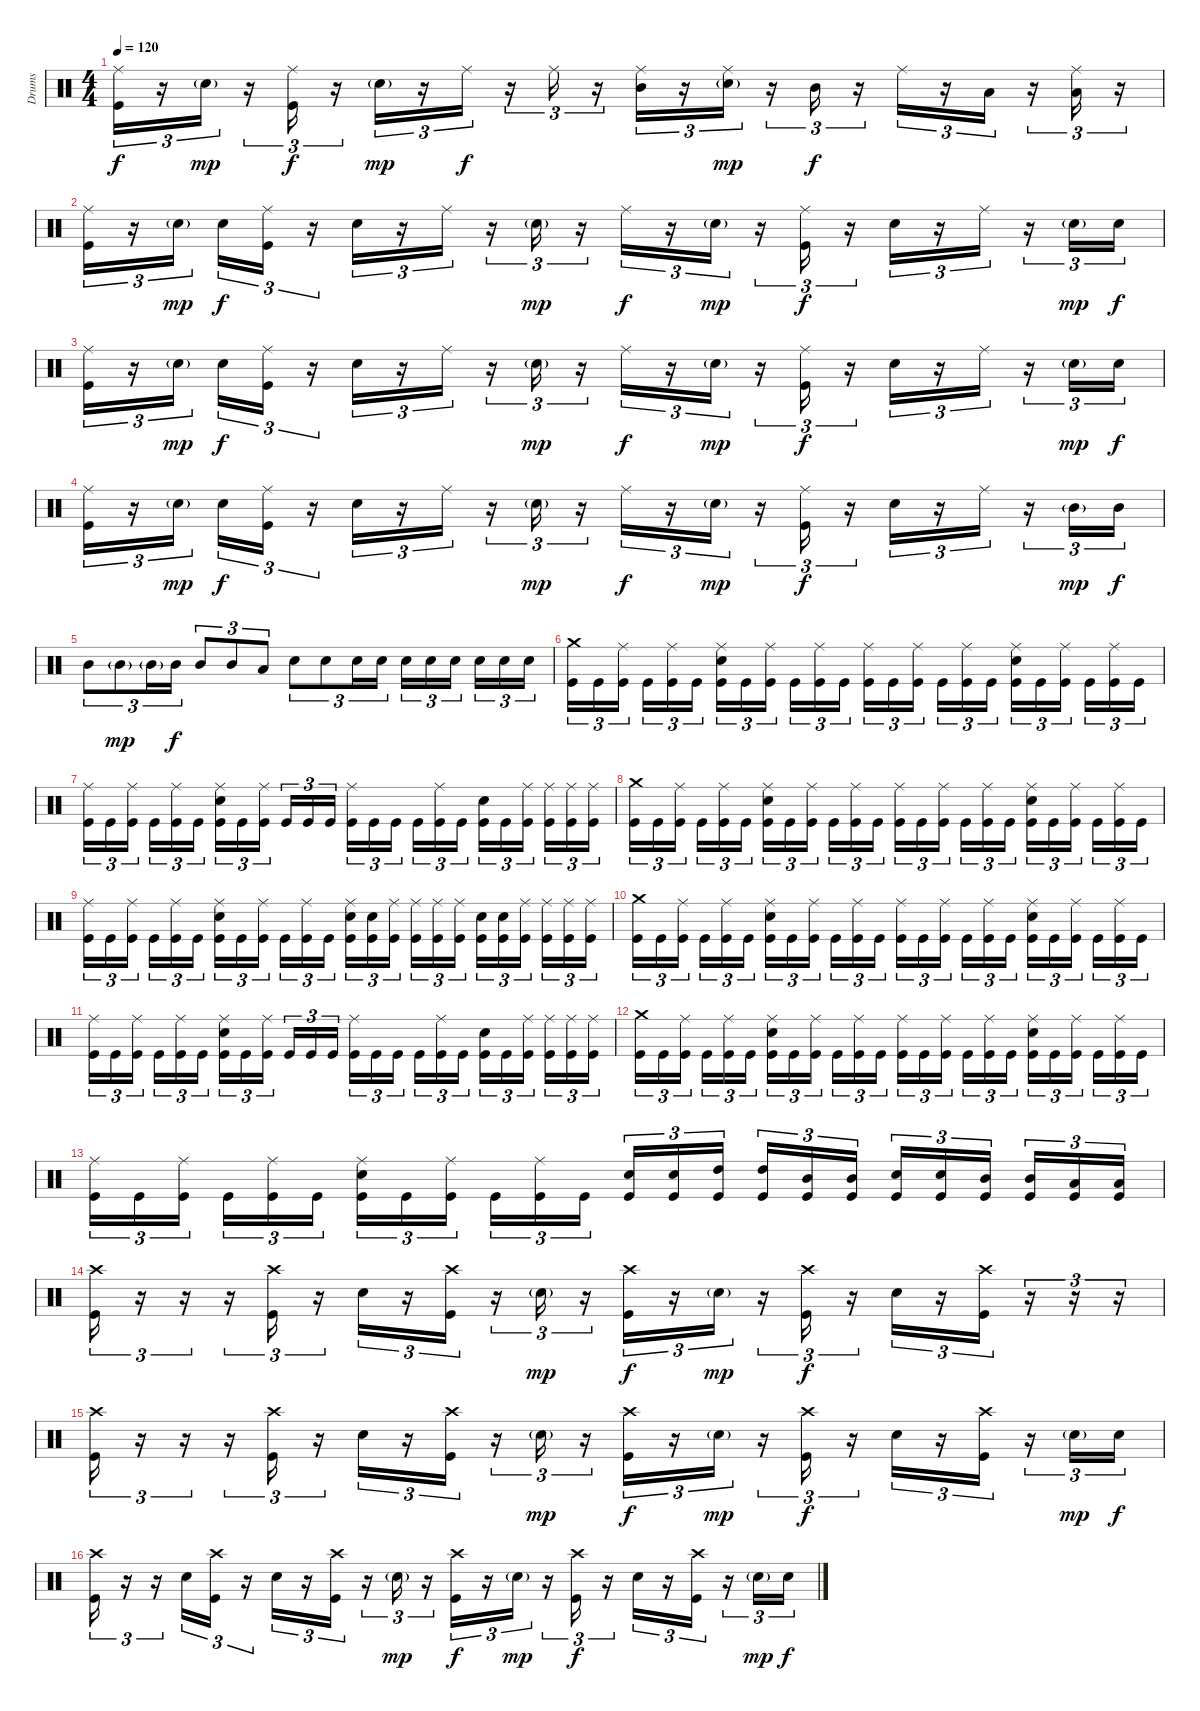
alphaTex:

\track ("Drums" "Drums") {instrument percussion}
\staff {score}
\articulation defaults
\ts (4 4)
\tempo 120
\clef neutral
\ks c
("Ride (middle)" "Kick (hit)").16{tu (3 2) dy f} r.16{tu (3 2)} "Snare (hit) 2"{g}.16{tu (3 2) dy mp} r.16{tu (3 2)} ("Ride (middle)" "Kick (hit)").16{tu (3 2) dy f} r.16{tu (3 2)} "Snare (hit) 2"{g}.16{tu (3 2) dy mp} r.16{tu (3 2)} "Ride (middle)".16{tu (3 2) dy f} r.16{tu (3 2)} "Ride (middle)".16{tu (3 2)} r.16{tu (3 2)} ("Ride (middle)" "Mid Tom (hit)").16{tu (3 2)} r.16{tu (3 2)} ("Ride (middle)" "Snare (hit) 2"{g}).16{tu (3 2) dy mp} r.16{tu (3 2)} "Mid Tom (hit)".16{tu (3 2) dy f} r.16{tu (3 2)} "Ride (middle)".16{tu (3 2)} r.16{tu (3 2)} "Low Tom (hit)".16{tu (3 2)} r.16{tu (3 2)} ("Ride (middle)" "Low Tom (hit)").16{tu (3 2)} r.16{tu (3 2)} |
("Ride (middle)" "Kick (hit)").16{tu (3 2)} r.16{tu (3 2)} "Snare (hit) 2"{g}.16{tu (3 2) dy mp beam splitsecondary} "Snare (hit) 2".16{tu (3 2) dy f} ("Ride (middle)" "Kick (hit)").16{tu (3 2)} r.16{tu (3 2)} "Snare (hit) 2".16{tu (3 2)} r.16{tu (3 2)} "Ride (middle)".16{tu (3 2)} r.16{tu (3 2)} "Snare (hit) 2"{g}.16{tu (3 2) dy mp} r.16{tu (3 2)} "Ride (middle)".16{tu (3 2) dy f} r.16{tu (3 2)} "Snare (hit) 2"{g}.16{tu (3 2) dy mp} r.16{tu (3 2)} ("Ride (middle)" "Kick (hit)").16{tu (3 2) dy f} r.16{tu (3 2)} "Snare (hit) 2".16{tu (3 2)} r.16{tu (3 2)} "Ride (middle)".16{tu (3 2)} r.16{tu (3 2)} "Snare (hit) 2"{g}.16{tu (3 2) dy mp} "Snare (hit) 2".16{tu (3 2) dy f} |
("Ride (middle)" "Kick (hit)").16{tu (3 2)} r.16{tu (3 2)} "Snare (hit) 2"{g}.16{tu (3 2) dy mp beam splitsecondary} "Snare (hit) 2".16{tu (3 2) dy f} ("Ride (middle)" "Kick (hit)").16{tu (3 2)} r.16{tu (3 2)} "Snare (hit) 2".16{tu (3 2)} r.16{tu (3 2)} "Ride (middle)".16{tu (3 2)} r.16{tu (3 2)} "Snare (hit) 2"{g}.16{tu (3 2) dy mp} r.16{tu (3 2)} "Ride (middle)".16{tu (3 2) dy f} r.16{tu (3 2)} "Snare (hit) 2"{g}.16{tu (3 2) dy mp} r.16{tu (3 2)} ("Ride (middle)" "Kick (hit)").16{tu (3 2) dy f} r.16{tu (3 2)} "Snare (hit) 2".16{tu (3 2)} r.16{tu (3 2)} "Ride (middle)".16{tu (3 2)} r.16{tu (3 2)} "Snare (hit) 2"{g}.16{tu (3 2) dy mp} "Snare (hit) 2".16{tu (3 2) dy f} |
("Ride (middle)" "Kick (hit)").16{tu (3 2)} r.16{tu (3 2)} "Snare (hit) 2"{g}.16{tu (3 2) dy mp beam splitsecondary} "Snare (hit) 2".16{tu (3 2) dy f} ("Ride (middle)" "Kick (hit)").16{tu (3 2)} r.16{tu (3 2)} "Snare (hit) 2".16{tu (3 2)} r.16{tu (3 2)} "Ride (middle)".16{tu (3 2)} r.16{tu (3 2)} "Snare (hit) 2"{g}.16{tu (3 2) dy mp} r.16{tu (3 2)} "Ride (middle)".16{tu (3 2) dy f} r.16{tu (3 2)} "Snare (hit) 2"{g}.16{tu (3 2) dy mp} r.16{tu (3 2)} ("Ride (middle)" "Kick (hit)").16{tu (3 2) dy f} r.16{tu (3 2)} "Snare (hit) 2".16{tu (3 2)} r.16{tu (3 2)} "Ride (middle)".16{tu (3 2)} r.16{tu (3 2)} "Mid Tom (hit)"{g}.16{tu (3 2) dy mp} "Mid Tom (hit)".16{tu (3 2) dy f} |
"Mid Tom (hit)".8{tu (3 2)} "Mid Tom (hit)"{g}.8{tu (3 2) dy mp} "Mid Tom (hit)"{g}.16{tu (3 2)} "Mid Tom (hit)".16{tu (3 2) dy f} "Mid Tom (hit)".8{tu (3 2)} "Mid Tom (hit)".8{tu (3 2)} "Low Tom (hit)".8{tu (3 2)} "Snare (hit) 2".8{tu (3 2)} "Snare (hit) 2".8{tu (3 2)} "Snare (hit) 2".16{tu (3 2)} "Snare (hit) 2".16{tu (3 2)} "Snare (hit) 2".16{tu (3 2)} "Snare (hit) 2".16{tu (3 2)} "Snare (hit) 2".16{tu (3 2) beam splitsecondary} "Snare (hit) 2".16{tu (3 2)} "Snare (hit) 2".16{tu (3 2)} "Snare (hit) 2".16{tu (3 2)} |
("Crash medium (hit)" "Kick (hit)").16{tu (3 2)} "Kick (hit)".16{tu (3 2)} ("Ride (middle)" "Kick (hit)").16{tu (3 2) beam splitsecondary} "Kick (hit)".16{tu (3 2)} ("Ride (middle)" "Kick (hit)").16{tu (3 2)} "Kick (hit)".16{tu (3 2)} ("Ride (middle)" "Snare (hit) 2" "Kick (hit)").16{tu (3 2)} "Kick (hit)".16{tu (3 2)} ("Ride (middle)" "Kick (hit)").16{tu (3 2) beam splitsecondary} "Kick (hit)".16{tu (3 2)} ("Ride (middle)" "Kick (hit)").16{tu (3 2)} "Kick (hit)".16{tu (3 2)} ("Ride (middle)" "Kick (hit)").16{tu (3 2)} "Kick (hit)".16{tu (3 2)} ("Ride (middle)" "Kick (hit)").16{tu (3 2) beam splitsecondary} "Kick (hit)".16{tu (3 2)} ("Ride (middle)" "Kick (hit)").16{tu (3 2)} "Kick (hit)".16{tu (3 2)} ("Ride (middle)" "Snare (hit) 2" "Kick (hit)").16{tu (3 2)} "Kick (hit)".16{tu (3 2)} ("Ride (middle)" "Kick (hit)").16{tu (3 2) beam splitsecondary} "Kick (hit)".16{tu (3 2)} ("Ride (middle)" "Kick (hit)").16{tu (3 2)} "Kick (hit)".16{tu (3 2)} |
("Ride (middle)" "Kick (hit)").16{tu (3 2)} "Kick (hit)".16{tu (3 2)} ("Ride (middle)" "Kick (hit)").16{tu (3 2) beam splitsecondary} "Kick (hit)".16{tu (3 2)} ("Ride (middle)" "Kick (hit)").16{tu (3 2)} "Kick (hit)".16{tu (3 2)} ("Ride (middle)" "Snare (hit) 2" "Kick (hit)").16{tu (3 2)} "Kick (hit)".16{tu (3 2)} ("Ride (middle)" "Kick (hit)").16{tu (3 2) beam splitsecondary} "Kick (hit)".16{tu (3 2)} "Kick (hit)".16{tu (3 2)} "Kick (hit)".16{tu (3 2)} ("Ride (middle)" "Kick (hit)").16{tu (3 2)} "Kick (hit)".16{tu (3 2)} "Kick (hit)".16{tu (3 2) beam splitsecondary} "Kick (hit)".16{tu (3 2)} ("Ride (middle)" "Kick (hit)").16{tu (3 2)} "Kick (hit)".16{tu (3 2)} ("Snare (hit) 2" "Kick (hit)").16{tu (3 2)} "Kick (hit)".16{tu (3 2)} ("Ride (middle)" "Kick (hit)").16{tu (3 2) beam splitsecondary} ("Ride (middle)" "Kick (hit)").16{tu (3 2)} ("Ride (middle)" "Kick (hit)").16{tu (3 2)} ("Ride (middle)" "Kick (hit)").16{tu (3 2)} |
("Crash medium (hit)" "Kick (hit)").16{tu (3 2)} "Kick (hit)".16{tu (3 2)} ("Ride (middle)" "Kick (hit)").16{tu (3 2) beam splitsecondary} "Kick (hit)".16{tu (3 2)} ("Ride (middle)" "Kick (hit)").16{tu (3 2)} "Kick (hit)".16{tu (3 2)} ("Ride (middle)" "Snare (hit) 2" "Kick (hit)").16{tu (3 2)} "Kick (hit)".16{tu (3 2)} ("Ride (middle)" "Kick (hit)").16{tu (3 2) beam splitsecondary} "Kick (hit)".16{tu (3 2)} ("Ride (middle)" "Kick (hit)").16{tu (3 2)} "Kick (hit)".16{tu (3 2)} ("Ride (middle)" "Kick (hit)").16{tu (3 2)} "Kick (hit)".16{tu (3 2)} ("Ride (middle)" "Kick (hit)").16{tu (3 2) beam splitsecondary} "Kick (hit)".16{tu (3 2)} ("Ride (middle)" "Kick (hit)").16{tu (3 2)} "Kick (hit)".16{tu (3 2)} ("Ride (middle)" "Snare (hit) 2" "Kick (hit)").16{tu (3 2)} "Kick (hit)".16{tu (3 2)} ("Ride (middle)" "Kick (hit)").16{tu (3 2) beam splitsecondary} "Kick (hit)".16{tu (3 2)} ("Ride (middle)" "Kick (hit)").16{tu (3 2)} "Kick (hit)".16{tu (3 2)} |
("Ride (middle)" "Kick (hit)").16{tu (3 2)} "Kick (hit)".16{tu (3 2)} ("Ride (middle)" "Kick (hit)").16{tu (3 2) beam splitsecondary} "Kick (hit)".16{tu (3 2)} ("Ride (middle)" "Kick (hit)").16{tu (3 2)} "Kick (hit)".16{tu (3 2)} ("Ride (middle)" "Snare (hit) 2" "Kick (hit)").16{tu (3 2)} "Kick (hit)".16{tu (3 2)} ("Ride (middle)" "Kick (hit)").16{tu (3 2) beam splitsecondary} "Kick (hit)".16{tu (3 2)} ("Ride (middle)" "Kick (hit)").16{tu (3 2)} "Kick (hit)".16{tu (3 2)} ("Ride (middle)" "Snare (hit) 2" "Kick (hit)").16{tu (3 2)} ("Snare (hit) 2" "Kick (hit)").16{tu (3 2)} ("Ride (middle)" "Kick (hit)").16{tu (3 2) beam splitsecondary} ("Ride (middle)" "Kick (hit)").16{tu (3 2)} ("Ride (middle)" "Kick (hit)").16{tu (3 2)} ("Ride (middle)" "Kick (hit)").16{tu (3 2)} ("Snare (hit) 2" "Kick (hit)").16{tu (3 2)} ("Snare (hit) 2" "Kick (hit)").16{tu (3 2)} ("Ride (middle)" "Kick (hit)").16{tu (3 2) beam splitsecondary} ("Ride (middle)" "Kick (hit)").16{tu (3 2)} ("Ride (middle)" "Kick (hit)").16{tu (3 2)} ("Ride (middle)" "Kick (hit)").16{tu (3 2)} |
("Crash medium (hit)" "Kick (hit)").16{tu (3 2)} "Kick (hit)".16{tu (3 2)} ("Ride (middle)" "Kick (hit)").16{tu (3 2) beam splitsecondary} "Kick (hit)".16{tu (3 2)} ("Ride (middle)" "Kick (hit)").16{tu (3 2)} "Kick (hit)".16{tu (3 2)} ("Ride (middle)" "Snare (hit) 2" "Kick (hit)").16{tu (3 2)} "Kick (hit)".16{tu (3 2)} ("Ride (middle)" "Kick (hit)").16{tu (3 2) beam splitsecondary} "Kick (hit)".16{tu (3 2)} ("Ride (middle)" "Kick (hit)").16{tu (3 2)} "Kick (hit)".16{tu (3 2)} ("Ride (middle)" "Kick (hit)").16{tu (3 2)} "Kick (hit)".16{tu (3 2)} ("Ride (middle)" "Kick (hit)").16{tu (3 2) beam splitsecondary} "Kick (hit)".16{tu (3 2)} ("Ride (middle)" "Kick (hit)").16{tu (3 2)} "Kick (hit)".16{tu (3 2)} ("Ride (middle)" "Snare (hit) 2" "Kick (hit)").16{tu (3 2)} "Kick (hit)".16{tu (3 2)} ("Ride (middle)" "Kick (hit)").16{tu (3 2) beam splitsecondary} "Kick (hit)".16{tu (3 2)} ("Ride (middle)" "Kick (hit)").16{tu (3 2)} "Kick (hit)".16{tu (3 2)} |
("Ride (middle)" "Kick (hit)").16{tu (3 2)} "Kick (hit)".16{tu (3 2)} ("Ride (middle)" "Kick (hit)").16{tu (3 2) beam splitsecondary} "Kick (hit)".16{tu (3 2)} ("Ride (middle)" "Kick (hit)").16{tu (3 2)} "Kick (hit)".16{tu (3 2)} ("Ride (middle)" "Snare (hit) 2" "Kick (hit)").16{tu (3 2)} "Kick (hit)".16{tu (3 2)} ("Ride (middle)" "Kick (hit)").16{tu (3 2) beam splitsecondary} "Kick (hit)".16{tu (3 2)} "Kick (hit)".16{tu (3 2)} "Kick (hit)".16{tu (3 2)} ("Ride (middle)" "Kick (hit)").16{tu (3 2)} "Kick (hit)".16{tu (3 2)} "Kick (hit)".16{tu (3 2) beam splitsecondary} "Kick (hit)".16{tu (3 2)} ("Ride (middle)" "Kick (hit)").16{tu (3 2)} "Kick (hit)".16{tu (3 2)} ("Snare (hit) 2" "Kick (hit)").16{tu (3 2)} "Kick (hit)".16{tu (3 2)} ("Ride (middle)" "Kick (hit)").16{tu (3 2) beam splitsecondary} ("Ride (middle)" "Kick (hit)").16{tu (3 2)} ("Ride (middle)" "Kick (hit)").16{tu (3 2)} ("Ride (middle)" "Kick (hit)").16{tu (3 2)} |
("Crash medium (hit)" "Kick (hit)").16{tu (3 2)} "Kick (hit)".16{tu (3 2)} ("Ride (middle)" "Kick (hit)").16{tu (3 2) beam splitsecondary} "Kick (hit)".16{tu (3 2)} ("Ride (middle)" "Kick (hit)").16{tu (3 2)} "Kick (hit)".16{tu (3 2)} ("Ride (middle)" "Snare (hit) 2" "Kick (hit)").16{tu (3 2)} "Kick (hit)".16{tu (3 2)} ("Ride (middle)" "Kick (hit)").16{tu (3 2) beam splitsecondary} "Kick (hit)".16{tu (3 2)} ("Ride (middle)" "Kick (hit)").16{tu (3 2)} "Kick (hit)".16{tu (3 2)} ("Ride (middle)" "Kick (hit)").16{tu (3 2)} "Kick (hit)".16{tu (3 2)} ("Ride (middle)" "Kick (hit)").16{tu (3 2) beam splitsecondary} "Kick (hit)".16{tu (3 2)} ("Ride (middle)" "Kick (hit)").16{tu (3 2)} "Kick (hit)".16{tu (3 2)} ("Ride (middle)" "Snare (hit) 2" "Kick (hit)").16{tu (3 2)} "Kick (hit)".16{tu (3 2)} ("Ride (middle)" "Kick (hit)").16{tu (3 2) beam splitsecondary} "Kick (hit)".16{tu (3 2)} ("Ride (middle)" "Kick (hit)").16{tu (3 2)} "Kick (hit)".16{tu (3 2)} |
("Ride (middle)" "Kick (hit)").16{tu (3 2)} "Kick (hit)".16{tu (3 2)} ("Ride (middle)" "Kick (hit)").16{tu (3 2) beam splitsecondary} "Kick (hit)".16{tu (3 2)} ("Ride (middle)" "Kick (hit)").16{tu (3 2)} "Kick (hit)".16{tu (3 2)} ("Ride (middle)" "Snare (hit) 2" "Kick (hit)").16{tu (3 2)} "Kick (hit)".16{tu (3 2)} ("Ride (middle)" "Kick (hit)").16{tu (3 2) beam splitsecondary} "Kick (hit)".16{tu (3 2)} ("Ride (middle)" "Kick (hit)").16{tu (3 2)} "Kick (hit)".16{tu (3 2)} ("Snare (hit) 2" "Kick (hit)").16{tu (3 2)} ("Snare (hit) 2" "Kick (hit)").16{tu (3 2)} ("High Tom (hit)" "Kick (hit)").16{tu (3 2) beam splitsecondary} ("High Tom (hit)" "Kick (hit)").16{tu (3 2)} ("Mid Tom (hit)" "Kick (hit)").16{tu (3 2)} ("Mid Tom (hit)" "Kick (hit)").16{tu (3 2)} ("Snare (hit) 2" "Kick (hit)").16{tu (3 2)} ("Snare (hit) 2" "Kick (hit)").16{tu (3 2)} ("Mid Tom (hit)" "Kick (hit)").16{tu (3 2) beam splitsecondary} ("Mid Tom (hit)" "Kick (hit)").16{tu (3 2)} ("Low Tom (hit)" "Kick (hit)").16{tu (3 2)} ("Low Tom (hit)" "Kick (hit)").16{tu (3 2)} |
("Crash high (hit)" "Kick (hit)").16{tu (3 2)} r.16{tu (3 2)} r.16{tu (3 2)} r.16{tu (3 2)} ("Crash high (hit)" "Kick (hit)").16{tu (3 2)} r.16{tu (3 2)} "Snare (hit) 2".16{tu (3 2)} r.16{tu (3 2)} ("Crash high (hit)" "Kick (hit)").16{tu (3 2)} r.16{tu (3 2)} "Snare (hit) 2"{g}.16{tu (3 2) dy mp} r.16{tu (3 2)} ("Crash high (hit)" "Kick (hit)").16{tu (3 2) dy f} r.16{tu (3 2)} "Snare (hit) 2"{g}.16{tu (3 2) dy mp} r.16{tu (3 2)} ("Crash high (hit)" "Kick (hit)").16{tu (3 2) dy f} r.16{tu (3 2)} "Snare (hit) 2".16{tu (3 2)} r.16{tu (3 2)} ("Crash high (hit)" "Kick (hit)").16{tu (3 2)} r.16{tu (3 2)} r.16{tu (3 2)} r.16{tu (3 2)} |
("Crash high (hit)" "Kick (hit)").16{tu (3 2)} r.16{tu (3 2)} r.16{tu (3 2)} r.16{tu (3 2)} ("Crash high (hit)" "Kick (hit)").16{tu (3 2)} r.16{tu (3 2)} "Snare (hit) 2".16{tu (3 2)} r.16{tu (3 2)} ("Crash high (hit)" "Kick (hit)").16{tu (3 2)} r.16{tu (3 2)} "Snare (hit) 2"{g}.16{tu (3 2) dy mp} r.16{tu (3 2)} ("Crash high (hit)" "Kick (hit)").16{tu (3 2) dy f} r.16{tu (3 2)} "Snare (hit) 2"{g}.16{tu (3 2) dy mp} r.16{tu (3 2)} ("Crash high (hit)" "Kick (hit)").16{tu (3 2) dy f} r.16{tu (3 2)} "Snare (hit) 2".16{tu (3 2)} r.16{tu (3 2)} ("Crash high (hit)" "Kick (hit)").16{tu (3 2)} r.16{tu (3 2)} "Snare (hit) 2"{g}.16{tu (3 2) dy mp} "Snare (hit) 2".16{tu (3 2) dy f} |
("Crash high (hit)" "Kick (hit)").16{tu (3 2)} r.16{tu (3 2)} r.16{tu (3 2)} "Snare (hit) 2".16{tu (3 2)} ("Crash high (hit)" "Kick (hit)").16{tu (3 2)} r.16{tu (3 2)} "Snare (hit) 2".16{tu (3 2)} r.16{tu (3 2)} ("Crash high (hit)" "Kick (hit)").16{tu (3 2)} r.16{tu (3 2)} "Snare (hit) 2"{g}.16{tu (3 2) dy mp} r.16{tu (3 2)} ("Crash high (hit)" "Kick (hit)").16{tu (3 2) dy f} r.16{tu (3 2)} "Snare (hit) 2"{g}.16{tu (3 2) dy mp} r.16{tu (3 2)} ("Crash high (hit)" "Kick (hit)").16{tu (3 2) dy f} r.16{tu (3 2)} "Snare (hit) 2".16{tu (3 2)} r.16{tu (3 2)} ("Crash high (hit)" "Kick (hit)").16{tu (3 2)} r.16{tu (3 2)} "Snare (hit) 2"{g}.16{tu (3 2) dy mp} "Snare (hit) 2".16{tu (3 2) dy f}
